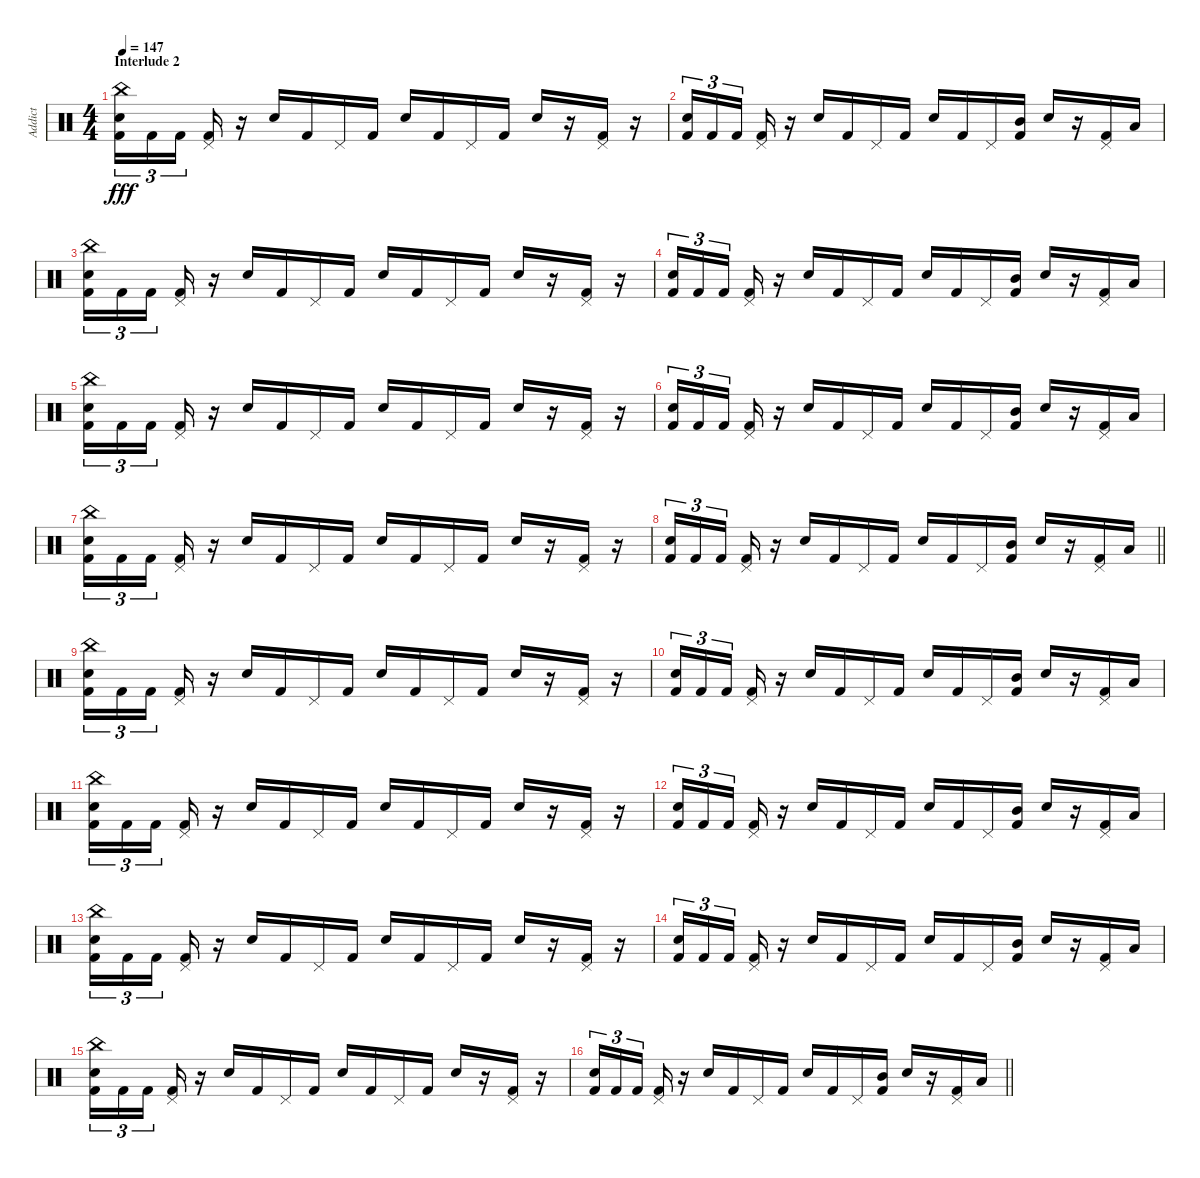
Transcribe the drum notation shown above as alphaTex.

\track ("Addict" "Addict") {instrument percussion}
\staff {score}
\articulation defaults
\ts (4 4)
\section ("" "Interlude 2")
\tempo 147
\clef neutral
\ks c
("Kick (hit) 2" "Snare (hit) 2" "China (hit)").16{tu (3 2) dy fff} "Kick (hit) 2".16{tu (3 2)} "Kick (hit) 2".16{tu (3 2) beam splitsecondary} ("Kick (hit) 2" "Pedal Hi-Hat (hit)").16 r.16 "Snare (hit) 2".16 "Kick (hit) 2".16 "Pedal Hi-Hat (hit)".16 "Kick (hit) 2".16 "Snare (hit) 2".16 "Kick (hit) 2".16 "Pedal Hi-Hat (hit)".16 "Kick (hit) 2".16 "Snare (hit) 2".16 r.16 ("Kick (hit) 2" "Pedal Hi-Hat (hit)").16 r.16 |
("Kick (hit) 2" "Snare (hit) 2").16{tu (3 2)} "Kick (hit) 2".16{tu (3 2)} "Kick (hit) 2".16{tu (3 2) beam splitsecondary} ("Kick (hit) 2" "Pedal Hi-Hat (hit)").16 r.16 "Snare (hit) 2".16 "Kick (hit) 2".16 "Pedal Hi-Hat (hit)".16 "Kick (hit) 2".16 "Snare (hit) 2".16 "Kick (hit) 2".16 "Pedal Hi-Hat (hit)".16 ("Kick (hit) 2" "Mid Tom (hit)").16 "Snare (hit) 2".16 r.16 ("Kick (hit) 2" "Pedal Hi-Hat (hit)").16 "Low Tom (hit)".16 |
("Kick (hit) 2" "Snare (hit) 2" "China (hit)").16{tu (3 2)} "Kick (hit) 2".16{tu (3 2)} "Kick (hit) 2".16{tu (3 2) beam splitsecondary} ("Kick (hit) 2" "Pedal Hi-Hat (hit)").16 r.16 "Snare (hit) 2".16 "Kick (hit) 2".16 "Pedal Hi-Hat (hit)".16 "Kick (hit) 2".16 "Snare (hit) 2".16 "Kick (hit) 2".16 "Pedal Hi-Hat (hit)".16 "Kick (hit) 2".16 "Snare (hit) 2".16 r.16 ("Kick (hit) 2" "Pedal Hi-Hat (hit)").16 r.16 |
("Kick (hit) 2" "Snare (hit) 2").16{tu (3 2)} "Kick (hit) 2".16{tu (3 2)} "Kick (hit) 2".16{tu (3 2) beam splitsecondary} ("Kick (hit) 2" "Pedal Hi-Hat (hit)").16 r.16 "Snare (hit) 2".16 "Kick (hit) 2".16 "Pedal Hi-Hat (hit)".16 "Kick (hit) 2".16 "Snare (hit) 2".16 "Kick (hit) 2".16 "Pedal Hi-Hat (hit)".16 ("Kick (hit) 2" "Mid Tom (hit)").16 "Snare (hit) 2".16 r.16 ("Kick (hit) 2" "Pedal Hi-Hat (hit)").16 "Low Tom (hit)".16 |
("Kick (hit) 2" "Snare (hit) 2" "China (hit)").16{tu (3 2)} "Kick (hit) 2".16{tu (3 2)} "Kick (hit) 2".16{tu (3 2) beam splitsecondary} ("Kick (hit) 2" "Pedal Hi-Hat (hit)").16 r.16 "Snare (hit) 2".16 "Kick (hit) 2".16 "Pedal Hi-Hat (hit)".16 "Kick (hit) 2".16 "Snare (hit) 2".16 "Kick (hit) 2".16 "Pedal Hi-Hat (hit)".16 "Kick (hit) 2".16 "Snare (hit) 2".16 r.16 ("Kick (hit) 2" "Pedal Hi-Hat (hit)").16 r.16 |
("Kick (hit) 2" "Snare (hit) 2").16{tu (3 2)} "Kick (hit) 2".16{tu (3 2)} "Kick (hit) 2".16{tu (3 2) beam splitsecondary} ("Kick (hit) 2" "Pedal Hi-Hat (hit)").16 r.16 "Snare (hit) 2".16 "Kick (hit) 2".16 "Pedal Hi-Hat (hit)".16 "Kick (hit) 2".16 "Snare (hit) 2".16 "Kick (hit) 2".16 "Pedal Hi-Hat (hit)".16 ("Kick (hit) 2" "Mid Tom (hit)").16 "Snare (hit) 2".16 r.16 ("Kick (hit) 2" "Pedal Hi-Hat (hit)").16 "Low Tom (hit)".16 |
("Kick (hit) 2" "Snare (hit) 2" "China (hit)").16{tu (3 2)} "Kick (hit) 2".16{tu (3 2)} "Kick (hit) 2".16{tu (3 2) beam splitsecondary} ("Kick (hit) 2" "Pedal Hi-Hat (hit)").16 r.16 "Snare (hit) 2".16 "Kick (hit) 2".16 "Pedal Hi-Hat (hit)".16 "Kick (hit) 2".16 "Snare (hit) 2".16 "Kick (hit) 2".16 "Pedal Hi-Hat (hit)".16 "Kick (hit) 2".16 "Snare (hit) 2".16 r.16 ("Kick (hit) 2" "Pedal Hi-Hat (hit)").16 r.16 |
\barLineRight lightlight
("Kick (hit) 2" "Snare (hit) 2").16{tu (3 2)} "Kick (hit) 2".16{tu (3 2)} "Kick (hit) 2".16{tu (3 2) beam splitsecondary} ("Kick (hit) 2" "Pedal Hi-Hat (hit)").16 r.16 "Snare (hit) 2".16 "Kick (hit) 2".16 "Pedal Hi-Hat (hit)".16 "Kick (hit) 2".16 "Snare (hit) 2".16 "Kick (hit) 2".16 "Pedal Hi-Hat (hit)".16 ("Kick (hit) 2" "Mid Tom (hit)").16 "Snare (hit) 2".16 r.16 ("Kick (hit) 2" "Pedal Hi-Hat (hit)").16 "Low Tom (hit)".16 |
("Kick (hit) 2" "Snare (hit) 2" "China (hit)").16{tu (3 2)} "Kick (hit) 2".16{tu (3 2)} "Kick (hit) 2".16{tu (3 2) beam splitsecondary} ("Kick (hit) 2" "Pedal Hi-Hat (hit)").16 r.16 "Snare (hit) 2".16 "Kick (hit) 2".16 "Pedal Hi-Hat (hit)".16 "Kick (hit) 2".16 "Snare (hit) 2".16 "Kick (hit) 2".16 "Pedal Hi-Hat (hit)".16 "Kick (hit) 2".16 "Snare (hit) 2".16 r.16 ("Kick (hit) 2" "Pedal Hi-Hat (hit)").16 r.16 |
("Kick (hit) 2" "Snare (hit) 2").16{tu (3 2)} "Kick (hit) 2".16{tu (3 2)} "Kick (hit) 2".16{tu (3 2) beam splitsecondary} ("Kick (hit) 2" "Pedal Hi-Hat (hit)").16 r.16 "Snare (hit) 2".16 "Kick (hit) 2".16 "Pedal Hi-Hat (hit)".16 "Kick (hit) 2".16 "Snare (hit) 2".16 "Kick (hit) 2".16 "Pedal Hi-Hat (hit)".16 ("Kick (hit) 2" "Mid Tom (hit)").16 "Snare (hit) 2".16 r.16 ("Kick (hit) 2" "Pedal Hi-Hat (hit)").16 "Low Tom (hit)".16 |
("Kick (hit) 2" "Snare (hit) 2" "China (hit)").16{tu (3 2)} "Kick (hit) 2".16{tu (3 2)} "Kick (hit) 2".16{tu (3 2) beam splitsecondary} ("Kick (hit) 2" "Pedal Hi-Hat (hit)").16 r.16 "Snare (hit) 2".16 "Kick (hit) 2".16 "Pedal Hi-Hat (hit)".16 "Kick (hit) 2".16 "Snare (hit) 2".16 "Kick (hit) 2".16 "Pedal Hi-Hat (hit)".16 "Kick (hit) 2".16 "Snare (hit) 2".16 r.16 ("Kick (hit) 2" "Pedal Hi-Hat (hit)").16 r.16 |
("Kick (hit) 2" "Snare (hit) 2").16{tu (3 2)} "Kick (hit) 2".16{tu (3 2)} "Kick (hit) 2".16{tu (3 2) beam splitsecondary} ("Kick (hit) 2" "Pedal Hi-Hat (hit)").16 r.16 "Snare (hit) 2".16 "Kick (hit) 2".16 "Pedal Hi-Hat (hit)".16 "Kick (hit) 2".16 "Snare (hit) 2".16 "Kick (hit) 2".16 "Pedal Hi-Hat (hit)".16 ("Kick (hit) 2" "Mid Tom (hit)").16 "Snare (hit) 2".16 r.16 ("Kick (hit) 2" "Pedal Hi-Hat (hit)").16 "Low Tom (hit)".16 |
("Kick (hit) 2" "Snare (hit) 2" "China (hit)").16{tu (3 2)} "Kick (hit) 2".16{tu (3 2)} "Kick (hit) 2".16{tu (3 2) beam splitsecondary} ("Kick (hit) 2" "Pedal Hi-Hat (hit)").16 r.16 "Snare (hit) 2".16 "Kick (hit) 2".16 "Pedal Hi-Hat (hit)".16 "Kick (hit) 2".16 "Snare (hit) 2".16 "Kick (hit) 2".16 "Pedal Hi-Hat (hit)".16 "Kick (hit) 2".16 "Snare (hit) 2".16 r.16 ("Kick (hit) 2" "Pedal Hi-Hat (hit)").16 r.16 |
("Kick (hit) 2" "Snare (hit) 2").16{tu (3 2)} "Kick (hit) 2".16{tu (3 2)} "Kick (hit) 2".16{tu (3 2) beam splitsecondary} ("Kick (hit) 2" "Pedal Hi-Hat (hit)").16 r.16 "Snare (hit) 2".16 "Kick (hit) 2".16 "Pedal Hi-Hat (hit)".16 "Kick (hit) 2".16 "Snare (hit) 2".16 "Kick (hit) 2".16 "Pedal Hi-Hat (hit)".16 ("Kick (hit) 2" "Mid Tom (hit)").16 "Snare (hit) 2".16 r.16 ("Kick (hit) 2" "Pedal Hi-Hat (hit)").16 "Low Tom (hit)".16 |
("Kick (hit) 2" "Snare (hit) 2" "China (hit)").16{tu (3 2)} "Kick (hit) 2".16{tu (3 2)} "Kick (hit) 2".16{tu (3 2) beam splitsecondary} ("Kick (hit) 2" "Pedal Hi-Hat (hit)").16 r.16 "Snare (hit) 2".16 "Kick (hit) 2".16 "Pedal Hi-Hat (hit)".16 "Kick (hit) 2".16 "Snare (hit) 2".16 "Kick (hit) 2".16 "Pedal Hi-Hat (hit)".16 "Kick (hit) 2".16 "Snare (hit) 2".16 r.16 ("Kick (hit) 2" "Pedal Hi-Hat (hit)").16 r.16 |
\barLineRight lightlight
("Kick (hit) 2" "Snare (hit) 2").16{tu (3 2)} "Kick (hit) 2".16{tu (3 2)} "Kick (hit) 2".16{tu (3 2) beam splitsecondary} ("Kick (hit) 2" "Pedal Hi-Hat (hit)").16 r.16 "Snare (hit) 2".16 "Kick (hit) 2".16 "Pedal Hi-Hat (hit)".16 "Kick (hit) 2".16 "Snare (hit) 2".16 "Kick (hit) 2".16 "Pedal Hi-Hat (hit)".16 ("Kick (hit) 2" "Mid Tom (hit)").16 "Snare (hit) 2".16 r.16 ("Kick (hit) 2" "Pedal Hi-Hat (hit)").16 "Low Tom (hit)".16
